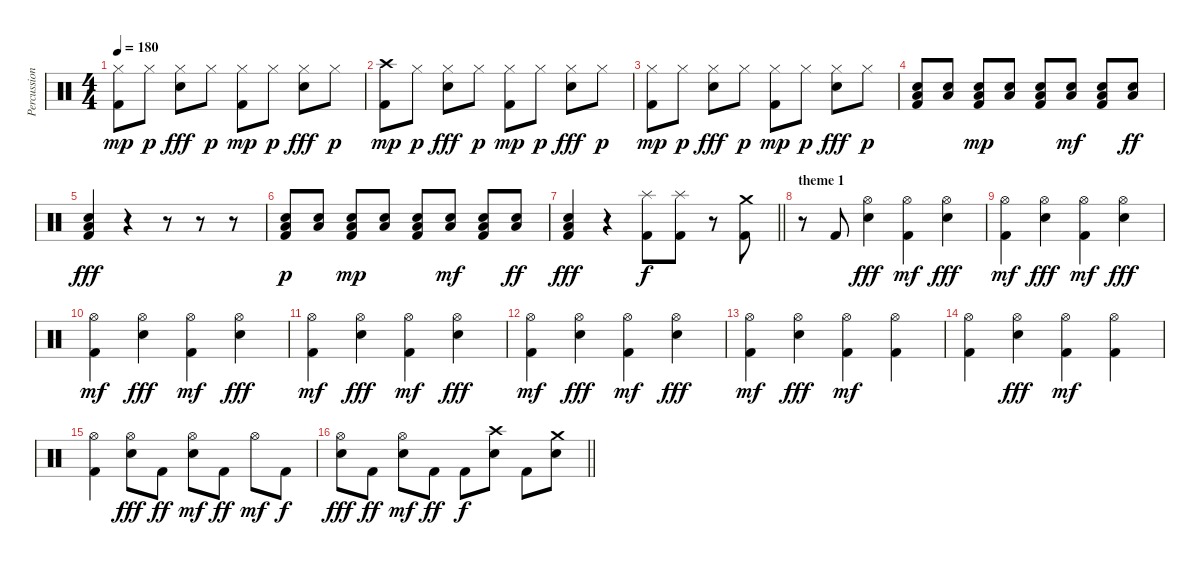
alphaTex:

\track ("Percussions" "Percussion") {instrument percussion}
\staff {score}
\articulation defaults
\ts (4 4)
\tempo 180
\clef neutral
\ks c
("Hi-Hat (closed)" "Kick (hit) 2").8{dy mp} "Hi-Hat (closed)".8{dy p} ("Hi-Hat (closed)" "Electric Snare (hit)").8{dy fff} "Hi-Hat (closed)".8{dy p} ("Hi-Hat (closed)" "Kick (hit) 2").8{dy mp} "Hi-Hat (closed)".8{dy p} ("Hi-Hat (closed)" "Electric Snare (hit)").8{dy fff} "Hi-Hat (closed)".8{dy p} |
("Crash high (hit)" "Kick (hit) 2").8{dy mp} "Hi-Hat (closed)".8{dy p} ("Hi-Hat (closed)" "Electric Snare (hit)").8{dy fff} "Hi-Hat (closed)".8{dy p} ("Hi-Hat (closed)" "Kick (hit) 2").8{dy mp} "Hi-Hat (closed)".8{dy p} ("Hi-Hat (closed)" "Electric Snare (hit)").8{dy fff} "Hi-Hat (closed)".8{dy p} |
("Hi-Hat (closed)" "Kick (hit) 2").8{dy mp} "Hi-Hat (closed)".8{dy p} ("Hi-Hat (closed)" "Electric Snare (hit)").8{dy fff} "Hi-Hat (closed)".8{dy p} ("Hi-Hat (closed)" "Kick (hit) 2").8{dy mp} "Hi-Hat (closed)".8{dy p} ("Hi-Hat (closed)" "Electric Snare (hit)").8{dy fff} "Hi-Hat (closed)".8{dy p} |
("Low Tom (hit)" "Electric Snare (hit)" "Kick (hit) 2").8 ("Low Tom (hit)" "Electric Snare (hit)").8 ("Low Tom (hit)" "Electric Snare (hit)" "Kick (hit) 2").8{dy mp} ("Low Tom (hit)" "Electric Snare (hit)").8 ("Low Tom (hit)" "Electric Snare (hit)" "Kick (hit) 2").8 ("Low Tom (hit)" "Electric Snare (hit)").8{dy mf} ("Low Tom (hit)" "Electric Snare (hit)" "Kick (hit) 2").8 ("Low Tom (hit)" "Electric Snare (hit)").8{dy ff} |
("Low Tom (hit)" "Electric Snare (hit)" "Kick (hit) 2").4{dy fff} r.4 r.8 r.8 r.8 |
("Low Tom (hit)" "Electric Snare (hit)" "Kick (hit) 2").8{dy p} ("Low Tom (hit)" "Electric Snare (hit)").8 ("Low Tom (hit)" "Electric Snare (hit)" "Kick (hit) 2").8{dy mp} ("Low Tom (hit)" "Electric Snare (hit)").8 ("Low Tom (hit)" "Electric Snare (hit)" "Kick (hit) 2").8 ("Low Tom (hit)" "Electric Snare (hit)").8{dy mf} ("Low Tom (hit)" "Electric Snare (hit)" "Kick (hit) 2").8 ("Low Tom (hit)" "Electric Snare (hit)").8{dy ff} |
\barLineRight lightlight
("Low Tom (hit)" "Electric Snare (hit)" "Kick (hit) 2").4{dy fff} r.4 ("Splash (hit)" "Kick (hit) 2").8{dy f} ("Splash (hit)" "Kick (hit) 2").8 r.8 ("Crash medium (hit)" "Kick (hit) 2").8 |
\section ("" "theme 1")
r.8 "Kick (hit) 2".8 ("Hi-Hat (open)" "Electric Snare (hit)").4{dy fff} ("Hi-Hat (open)" "Kick (hit) 2").4{dy mf} ("Hi-Hat (open)" "Electric Snare (hit)").4{dy fff} |
("Hi-Hat (open)" "Kick (hit) 2").4{dy mf} ("Hi-Hat (open)" "Electric Snare (hit)").4{dy fff} ("Hi-Hat (open)" "Kick (hit) 2").4{dy mf} ("Hi-Hat (open)" "Electric Snare (hit)").4{dy fff} |
("Hi-Hat (open)" "Kick (hit) 2").4{dy mf} ("Hi-Hat (open)" "Electric Snare (hit)").4{dy fff} ("Hi-Hat (open)" "Kick (hit) 2").4{dy mf} ("Hi-Hat (open)" "Electric Snare (hit)").4{dy fff} |
("Hi-Hat (open)" "Kick (hit) 2").4{dy mf} ("Hi-Hat (open)" "Electric Snare (hit)").4{dy fff} ("Hi-Hat (open)" "Kick (hit) 2").4{dy mf} ("Hi-Hat (open)" "Electric Snare (hit)").4{dy fff} |
("Hi-Hat (open)" "Kick (hit) 2").4{dy mf} ("Hi-Hat (open)" "Electric Snare (hit)").4{dy fff} ("Hi-Hat (open)" "Kick (hit) 2").4{dy mf} ("Hi-Hat (open)" "Electric Snare (hit)").4{dy fff} |
("Hi-Hat (open)" "Kick (hit) 2").4{dy mf} ("Hi-Hat (open)" "Electric Snare (hit)").4{dy fff} ("Hi-Hat (open)" "Kick (hit) 2").4{dy mf} ("Hi-Hat (open)" "Kick (hit) 2").4 |
("Hi-Hat (open)" "Kick (hit) 2").4 ("Hi-Hat (open)" "Electric Snare (hit)").4{dy fff} ("Hi-Hat (open)" "Kick (hit) 2").4{dy mf} ("Hi-Hat (open)" "Kick (hit) 2").4 |
("Hi-Hat (open)" "Kick (hit) 2").4 ("Hi-Hat (open)" "Electric Snare (hit)").8{dy fff} "Kick (hit) 2".8{dy ff} ("Hi-Hat (open)" "Electric Snare (hit)").8{dy mf} "Kick (hit) 2".8{dy ff} "Hi-Hat (open)".8{dy mf} "Kick (hit) 2".8{dy f} |
\barLineRight lightlight
("Hi-Hat (open)" "Electric Snare (hit)").8{dy fff} "Kick (hit) 2".8{dy ff} ("Hi-Hat (open)" "Electric Snare (hit)").8{dy mf} "Kick (hit) 2".8{dy ff} "Kick (hit) 2".8{dy f} ("Crash high (hit)" "Electric Snare (hit)").8 "Kick (hit) 2".8 ("Crash medium (hit)" "Electric Snare (hit)").8
